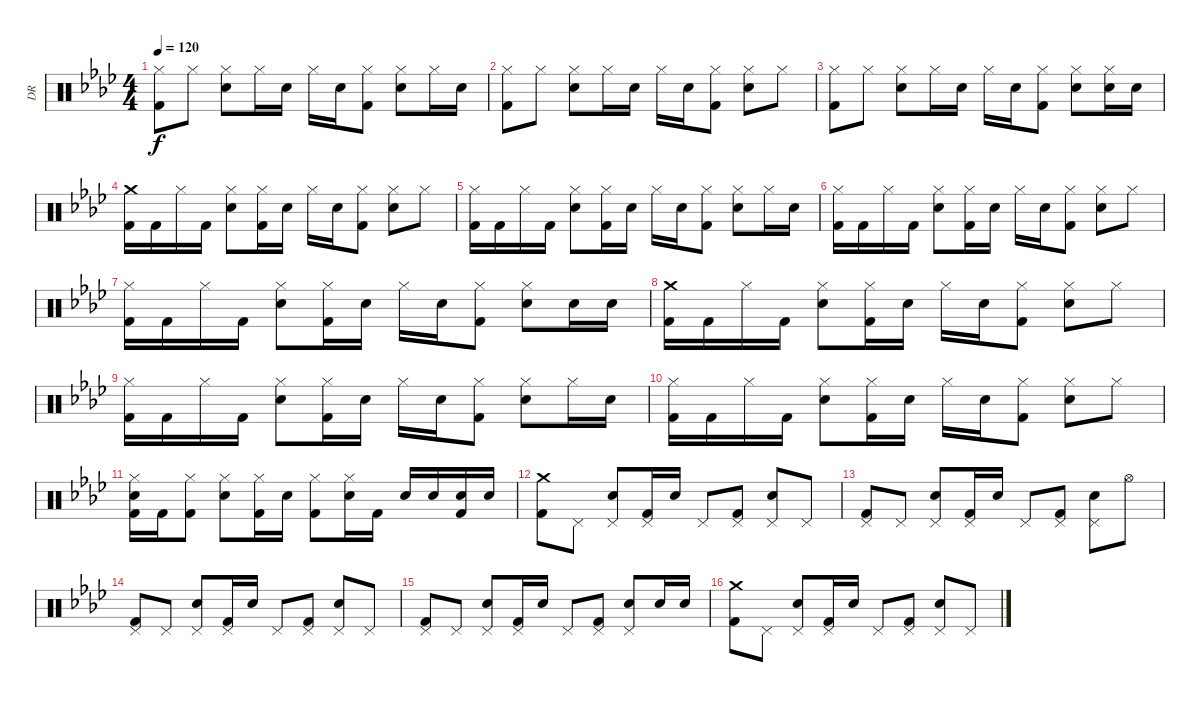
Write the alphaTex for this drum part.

\track ("DR" "DR") {instrument percussion}
\staff {score}
\articulation defaults
\ts (4 4)
\tempo 120
\clef neutral
\ks ab
("Hi-Hat (closed)" "Kick (hit) 2").8{dy f} "Hi-Hat (closed)".8 ("Hi-Hat (closed)" "Electric Snare (hit)").8 "Hi-Hat (closed)".16 "Electric Snare (hit)".16 "Hi-Hat (closed)".16 "Electric Snare (hit)".16 ("Hi-Hat (closed)" "Kick (hit) 2").8 ("Hi-Hat (closed)" "Electric Snare (hit)").8 "Hi-Hat (closed)".16 "Electric Snare (hit)".16 |
("Hi-Hat (closed)" "Kick (hit) 2").8 "Hi-Hat (closed)".8 ("Hi-Hat (closed)" "Electric Snare (hit)").8 "Hi-Hat (closed)".16 "Electric Snare (hit)".16 "Hi-Hat (closed)".16 "Electric Snare (hit)".16 ("Hi-Hat (closed)" "Kick (hit) 2").8 ("Hi-Hat (closed)" "Electric Snare (hit)").8 "Hi-Hat (closed)".8 |
("Hi-Hat (closed)" "Kick (hit) 2").8 "Hi-Hat (closed)".8 ("Hi-Hat (closed)" "Electric Snare (hit)").8 "Hi-Hat (closed)".16 "Electric Snare (hit)".16 "Hi-Hat (closed)".16 "Electric Snare (hit)".16 ("Hi-Hat (closed)" "Kick (hit) 2").8 ("Hi-Hat (closed)" "Electric Snare (hit)").8 ("Hi-Hat (closed)" "Electric Snare (hit)").16 "Electric Snare (hit)".16 |
("Crash medium (hit)" "Kick (hit) 2").16 "Kick (hit) 2".16 "Hi-Hat (closed)".16 "Kick (hit) 2".16 ("Hi-Hat (closed)" "Electric Snare (hit)").8 ("Hi-Hat (closed)" "Kick (hit) 2").16 "Electric Snare (hit)".16 "Hi-Hat (closed)".16 "Electric Snare (hit)".16 ("Hi-Hat (closed)" "Kick (hit) 2").8 ("Hi-Hat (closed)" "Electric Snare (hit)").8 "Hi-Hat (closed)".8 |
("Hi-Hat (closed)" "Kick (hit) 2").16 "Kick (hit) 2".16 "Hi-Hat (closed)".16 "Kick (hit) 2".16 ("Hi-Hat (closed)" "Electric Snare (hit)").8 ("Hi-Hat (closed)" "Kick (hit) 2").16 "Electric Snare (hit)".16 "Hi-Hat (closed)".16 "Electric Snare (hit)".16 ("Hi-Hat (closed)" "Kick (hit) 2").8 ("Hi-Hat (closed)" "Electric Snare (hit)").8 "Hi-Hat (closed)".16 "Electric Snare (hit)".16 |
("Hi-Hat (closed)" "Kick (hit) 2").16 "Kick (hit) 2".16 "Hi-Hat (closed)".16 "Kick (hit) 2".16 ("Hi-Hat (closed)" "Electric Snare (hit)").8 ("Hi-Hat (closed)" "Kick (hit) 2").16 "Electric Snare (hit)".16 "Hi-Hat (closed)".16 "Electric Snare (hit)".16 ("Hi-Hat (closed)" "Kick (hit) 2").8 ("Hi-Hat (closed)" "Electric Snare (hit)").8 "Hi-Hat (closed)".8 |
("Hi-Hat (closed)" "Kick (hit) 2").16 "Kick (hit) 2".16 "Hi-Hat (closed)".16 "Kick (hit) 2".16 ("Hi-Hat (closed)" "Electric Snare (hit)").8 ("Hi-Hat (closed)" "Kick (hit) 2").16 "Electric Snare (hit)".16 "Hi-Hat (closed)".16 "Electric Snare (hit)".16 ("Hi-Hat (closed)" "Kick (hit) 2").8 ("Hi-Hat (closed)" "Electric Snare (hit)").8 "Electric Snare (hit)".16 "Electric Snare (hit)".16 |
("Crash medium (hit)" "Kick (hit) 2").16 "Kick (hit) 2".16 "Hi-Hat (closed)".16 "Kick (hit) 2".16 ("Hi-Hat (closed)" "Electric Snare (hit)").8 ("Hi-Hat (closed)" "Kick (hit) 2").16 "Electric Snare (hit)".16 "Hi-Hat (closed)".16 "Electric Snare (hit)".16 ("Hi-Hat (closed)" "Kick (hit) 2").8 ("Hi-Hat (closed)" "Electric Snare (hit)").8 "Hi-Hat (closed)".8 |
("Hi-Hat (closed)" "Kick (hit) 2").16 "Kick (hit) 2".16 "Hi-Hat (closed)".16 "Kick (hit) 2".16 ("Hi-Hat (closed)" "Electric Snare (hit)").8 ("Hi-Hat (closed)" "Kick (hit) 2").16 "Electric Snare (hit)".16 "Hi-Hat (closed)".16 "Electric Snare (hit)".16 ("Hi-Hat (closed)" "Kick (hit) 2").8 ("Hi-Hat (closed)" "Electric Snare (hit)").8 "Hi-Hat (closed)".16 "Electric Snare (hit)".16 |
("Hi-Hat (closed)" "Kick (hit) 2").16 "Kick (hit) 2".16 "Hi-Hat (closed)".16 "Kick (hit) 2".16 ("Hi-Hat (closed)" "Electric Snare (hit)").8 ("Hi-Hat (closed)" "Kick (hit) 2").16 "Electric Snare (hit)".16 "Hi-Hat (closed)".16 "Electric Snare (hit)".16 ("Hi-Hat (closed)" "Kick (hit) 2").8 ("Hi-Hat (closed)" "Electric Snare (hit)").8 "Hi-Hat (closed)".8 |
("Hi-Hat (closed)" "Electric Snare (hit)" "Kick (hit) 2").16 "Kick (hit) 2".16 ("Hi-Hat (closed)" "Kick (hit) 2").8 ("Hi-Hat (closed)" "Electric Snare (hit)").8 ("Hi-Hat (closed)" "Kick (hit) 2").16 "Electric Snare (hit)".16 ("Hi-Hat (closed)" "Kick (hit) 2").8 ("Hi-Hat (closed)" "Electric Snare (hit)").16 "Kick (hit) 2".16 "Electric Snare (hit)".16 "Electric Snare (hit)".16 ("Electric Snare (hit)" "Kick (hit) 2").16 "Electric Snare (hit)".16 |
("Crash medium (hit)" "Kick (hit) 2").8 "Pedal Hi-Hat (hit)".8 ("Pedal Hi-Hat (hit)" "Electric Snare (hit)").8 ("Pedal Hi-Hat (hit)" "Kick (hit) 2").16 "Electric Snare (hit)".16 "Pedal Hi-Hat (hit)".8 ("Pedal Hi-Hat (hit)" "Kick (hit) 2").8 ("Pedal Hi-Hat (hit)" "Electric Snare (hit)").8 "Pedal Hi-Hat (hit)".8 |
("Pedal Hi-Hat (hit)" "Kick (hit) 2").8 "Pedal Hi-Hat (hit)".8 ("Pedal Hi-Hat (hit)" "Electric Snare (hit)").8 ("Pedal Hi-Hat (hit)" "Kick (hit) 2").16 "Electric Snare (hit)".16 "Pedal Hi-Hat (hit)".8 ("Pedal Hi-Hat (hit)" "Kick (hit) 2").8 ("Pedal Hi-Hat (hit)" "Electric Snare (hit)").8 "Hi-Hat (open)".8 |
("Pedal Hi-Hat (hit)" "Kick (hit) 2").8 "Pedal Hi-Hat (hit)".8 ("Pedal Hi-Hat (hit)" "Electric Snare (hit)").8 ("Pedal Hi-Hat (hit)" "Kick (hit) 2").16 "Electric Snare (hit)".16 "Pedal Hi-Hat (hit)".8 ("Pedal Hi-Hat (hit)" "Kick (hit) 2").8 ("Pedal Hi-Hat (hit)" "Electric Snare (hit)").8 "Pedal Hi-Hat (hit)".8 |
("Pedal Hi-Hat (hit)" "Kick (hit) 2").8 "Pedal Hi-Hat (hit)".8 ("Pedal Hi-Hat (hit)" "Electric Snare (hit)").8 ("Pedal Hi-Hat (hit)" "Kick (hit) 2").16 "Electric Snare (hit)".16 "Pedal Hi-Hat (hit)".8 ("Pedal Hi-Hat (hit)" "Kick (hit) 2").8 ("Pedal Hi-Hat (hit)" "Electric Snare (hit)").8 "Electric Snare (hit)".16 "Electric Snare (hit)".16 |
("Crash medium (hit)" "Kick (hit) 2").8 "Pedal Hi-Hat (hit)".8 ("Pedal Hi-Hat (hit)" "Electric Snare (hit)").8 ("Pedal Hi-Hat (hit)" "Kick (hit) 2").16 "Electric Snare (hit)".16 "Pedal Hi-Hat (hit)".8 ("Pedal Hi-Hat (hit)" "Kick (hit) 2").8 ("Pedal Hi-Hat (hit)" "Electric Snare (hit)").8 "Pedal Hi-Hat (hit)".8
